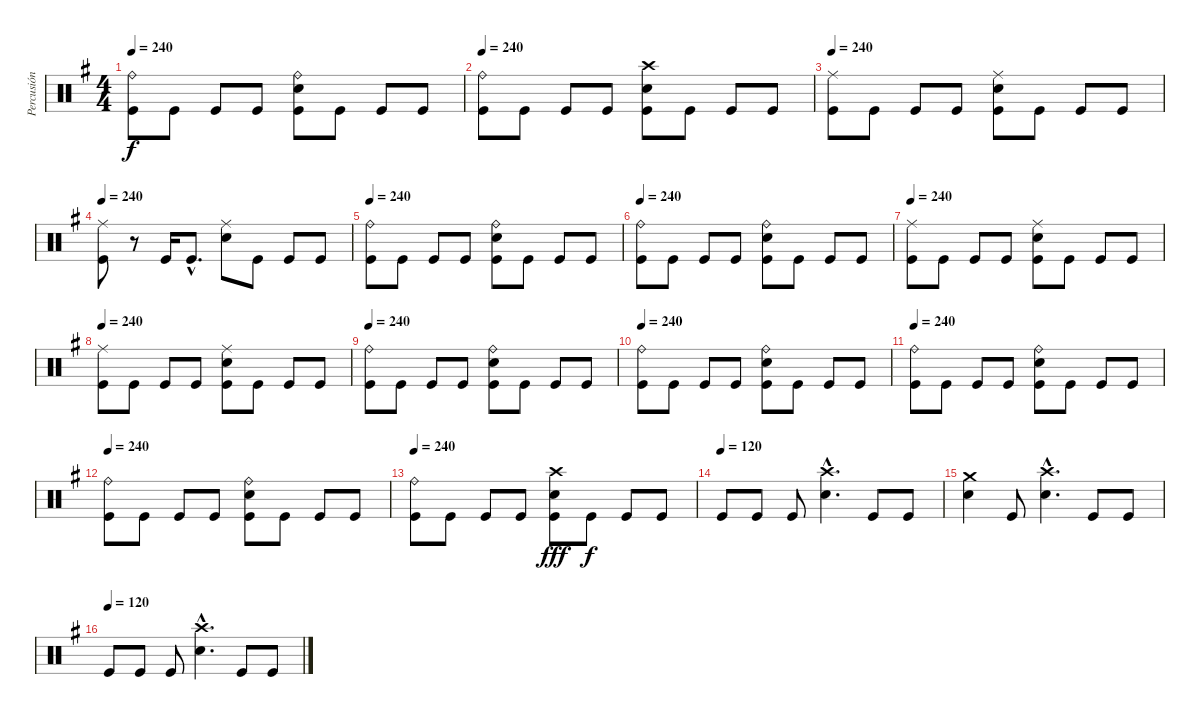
\track ("Percusión" "Percusión") {instrument percussion}
\staff {score}
\articulation defaults
\ts (4 4)
\tempo 240
\clef neutral
\ks g
("Ride (bell)" "Kick (hit)").8{dy f} "Kick (hit)".8 "Kick (hit)".8 "Kick (hit)".8 ("Ride (bell)" "Kick (hit)" "Snare (hit) 2").8 "Kick (hit)".8 "Kick (hit)".8 "Kick (hit)".8 |
\tempo 240
("Ride (bell)" "Kick (hit)").8 "Kick (hit)".8 "Kick (hit)".8 "Kick (hit)".8 ("Crash high (hit)" "Kick (hit)" "Snare (hit) 2").8 "Kick (hit)".8 "Kick (hit)".8 "Kick (hit)".8 |
\tempo 240
("Ride (middle)" "Kick (hit)").8 "Kick (hit)".8 "Kick (hit)".8 "Kick (hit)".8 ("Ride (middle)" "Kick (hit)" "Snare (hit) 2").8 "Kick (hit)".8 "Kick (hit)".8 "Kick (hit)".8 |
\tempo 240
("Ride (middle)" "Kick (hit)").8 r.8 "Kick (hit)".16 "Kick (hit)"{hac}.8{d} ("Ride (middle)" "Snare (hit) 2").8 "Kick (hit)".8 "Kick (hit)".8 "Kick (hit)".8 |
\tempo 240
("Ride (bell)" "Kick (hit)").8 "Kick (hit)".8 "Kick (hit)".8 "Kick (hit)".8 ("Ride (bell)" "Kick (hit)" "Snare (hit) 2").8 "Kick (hit)".8 "Kick (hit)".8 "Kick (hit)".8 |
\tempo 240
("Ride (bell)" "Kick (hit)").8 "Kick (hit)".8 "Kick (hit)".8 "Kick (hit)".8 ("Ride (bell)" "Kick (hit)" "Snare (hit) 2").8 "Kick (hit)".8 "Kick (hit)".8 "Kick (hit)".8 |
\tempo 240
("Ride (middle)" "Kick (hit)").8 "Kick (hit)".8 "Kick (hit)".8 "Kick (hit)".8 ("Ride (middle)" "Kick (hit)" "Snare (hit) 2").8 "Kick (hit)".8 "Kick (hit)".8 "Kick (hit)".8 |
\tempo 240
("Ride (middle)" "Kick (hit)").8 "Kick (hit)".8 "Kick (hit)".8 "Kick (hit)".8 ("Ride (middle)" "Kick (hit)" "Snare (hit) 2").8 "Kick (hit)".8 "Kick (hit)".8 "Kick (hit)".8 |
\tempo 240
("Ride (bell)" "Kick (hit)").8 "Kick (hit)".8 "Kick (hit)".8 "Kick (hit)".8 ("Ride (bell)" "Kick (hit)" "Snare (hit) 2").8 "Kick (hit)".8 "Kick (hit)".8 "Kick (hit)".8 |
\tempo 240
("Ride (bell)" "Kick (hit)").8 "Kick (hit)".8 "Kick (hit)".8 "Kick (hit)".8 ("Ride (bell)" "Kick (hit)" "Snare (hit) 2").8 "Kick (hit)".8 "Kick (hit)".8 "Kick (hit)".8 |
\tempo 240
("Ride (bell)" "Kick (hit)").8 "Kick (hit)".8 "Kick (hit)".8 "Kick (hit)".8 ("Ride (bell)" "Kick (hit)" "Snare (hit) 2").8 "Kick (hit)".8 "Kick (hit)".8 "Kick (hit)".8 |
\tempo 240
("Ride (bell)" "Kick (hit)").8 "Kick (hit)".8 "Kick (hit)".8 "Kick (hit)".8 ("Ride (bell)" "Kick (hit)" "Snare (hit) 2").8 "Kick (hit)".8 "Kick (hit)".8 "Kick (hit)".8 |
\tempo 240
("Ride (bell)" "Kick (hit)").8 "Kick (hit)".8 "Kick (hit)".8 "Kick (hit)".8 ("Crash high (hit)" "Kick (hit)" "Snare (hit) 2").8{dy fff} "Kick (hit)".8{dy f} "Kick (hit)".8 "Kick (hit)".8 |
\tempo (120)
"Kick (hit)".8 "Kick (hit)".8 "Kick (hit)".8 ("Crash high (hit)"{hac} "Snare (hit) 2"{hac}).4{d} "Kick (hit)".8 "Kick (hit)".8 |
("Crash medium (hit)" "Snare (hit) 2").4 "Kick (hit)".8 ("Crash high (hit)"{hac} "Snare (hit) 2"{hac}).4{d} "Kick (hit)".8 "Kick (hit)".8 |
\tempo (120)
"Kick (hit)".8 "Kick (hit)".8 "Kick (hit)".8 ("Crash high (hit)"{hac} "Snare (hit) 2"{hac}).4{d} "Kick (hit)".8 "Kick (hit)".8
